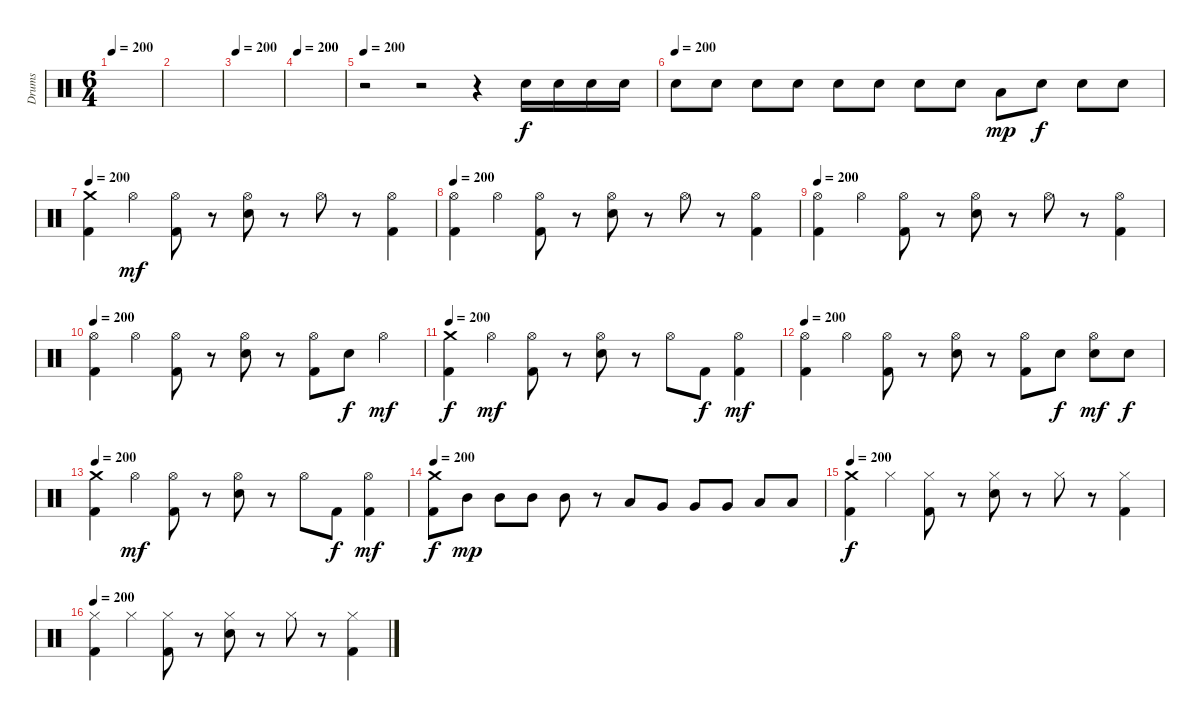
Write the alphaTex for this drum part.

\track ("Drums" "Drums") {instrument percussion}
\staff {score}
\articulation defaults
\ts (6 4)
\tempo 200
\clef neutral
\ks c
|
|
\tempo 200
|
\tempo 200
|
\tempo 200
r.2 r.2 r.4 "Electric Snare (hit)".16 "Electric Snare (hit)".16 "Electric Snare (hit)".16 "Electric Snare (hit)".16 |
\tempo (200)
"Electric Snare (hit)".8 "Electric Snare (hit)".8 "Electric Snare (hit)".8 "Electric Snare (hit)".8 "Electric Snare (hit)".8 "Electric Snare (hit)".8 "Electric Snare (hit)".8 "Electric Snare (hit)".8 "Low Tom (hit)".8{dy mp} "Electric Snare (hit)".8{dy f} "Electric Snare (hit)".8 "Electric Snare (hit)".8 |
\tempo 200
("Crash medium (hit)" "Kick (hit) 2").4 "Hi-Hat (open)".4{dy mf} ("Hi-Hat (open)" "Kick (hit) 2").8 r.8 ("Hi-Hat (open)" "Electric Snare (hit)").8 r.8 "Hi-Hat (open)".8 r.8 ("Hi-Hat (open)" "Kick (hit) 2").4 |
\tempo 200
("Hi-Hat (open)" "Kick (hit) 2").4 "Hi-Hat (open)".4 ("Hi-Hat (open)" "Kick (hit) 2").8 r.8 ("Hi-Hat (open)" "Electric Snare (hit)").8 r.8 "Hi-Hat (open)".8 r.8 ("Hi-Hat (open)" "Kick (hit) 2").4 |
\tempo 200
("Hi-Hat (open)" "Kick (hit) 2").4 "Hi-Hat (open)".4 ("Hi-Hat (open)" "Kick (hit) 2").8 r.8 ("Hi-Hat (open)" "Electric Snare (hit)").8 r.8 "Hi-Hat (open)".8 r.8 ("Hi-Hat (open)" "Kick (hit) 2").4 |
\tempo 200
("Hi-Hat (open)" "Kick (hit) 2").4 "Hi-Hat (open)".4 ("Hi-Hat (open)" "Kick (hit) 2").8 r.8 ("Hi-Hat (open)" "Electric Snare (hit)").8 r.8 ("Hi-Hat (open)" "Kick (hit) 2").8 "Electric Snare (hit)".8{dy f} "Hi-Hat (open)".4{dy mf} |
\tempo 200
("Crash medium (hit)" "Kick (hit) 2").4{dy f} "Hi-Hat (open)".4{dy mf} ("Hi-Hat (open)" "Kick (hit) 2").8 r.8 ("Hi-Hat (open)" "Electric Snare (hit)").8 r.8 "Hi-Hat (open)".8 "Kick (hit) 2".8{dy f} ("Hi-Hat (open)" "Kick (hit) 2").4{dy mf} |
\tempo 200
("Hi-Hat (open)" "Kick (hit) 2").4 "Hi-Hat (open)".4 ("Hi-Hat (open)" "Kick (hit) 2").8 r.8 ("Hi-Hat (open)" "Electric Snare (hit)").8 r.8 ("Hi-Hat (open)" "Kick (hit) 2").8 "Electric Snare (hit)".8{dy f} ("Hi-Hat (open)" "Electric Snare (hit)").8{dy mf} "Electric Snare (hit)".8{dy f} |
\tempo 200
("Crash medium (hit)" "Kick (hit) 2").4 "Hi-Hat (open)".4{dy mf} ("Hi-Hat (open)" "Kick (hit) 2").8 r.8 ("Hi-Hat (open)" "Electric Snare (hit)").8 r.8 "Hi-Hat (open)".8 "Kick (hit) 2".8{dy f} ("Hi-Hat (open)" "Kick (hit) 2").4{dy mf} |
\tempo 200
("Crash medium (hit)" "Kick (hit) 2").8{dy f} "Mid Tom (hit)".8{dy mp} "Mid Tom (hit)".8 "Mid Tom (hit)".8 "Mid Tom (hit)".8 r.8 "Low Tom (hit)".8 "Very Low Tom (hit)".8 "Very Low Tom (hit)".8 "Very Low Tom (hit)".8 "Low Floor Tom (hit)".8 "Low Floor Tom (hit)".8 |
\tempo 200
("Crash medium (hit)" "Kick (hit) 2").4{dy f} "Hi-Hat (closed)".4 ("Hi-Hat (closed)" "Kick (hit) 2").8 r.8 ("Hi-Hat (closed)" "Electric Snare (hit)").8 r.8 "Hi-Hat (closed)".8 r.8 ("Hi-Hat (closed)" "Kick (hit) 2").4 |
\tempo 200
("Hi-Hat (closed)" "Kick (hit) 2").4 "Hi-Hat (closed)".4 ("Hi-Hat (closed)" "Kick (hit) 2").8 r.8 ("Hi-Hat (closed)" "Electric Snare (hit)").8 r.8 "Hi-Hat (closed)".8 r.8 ("Hi-Hat (closed)" "Kick (hit) 2").4
